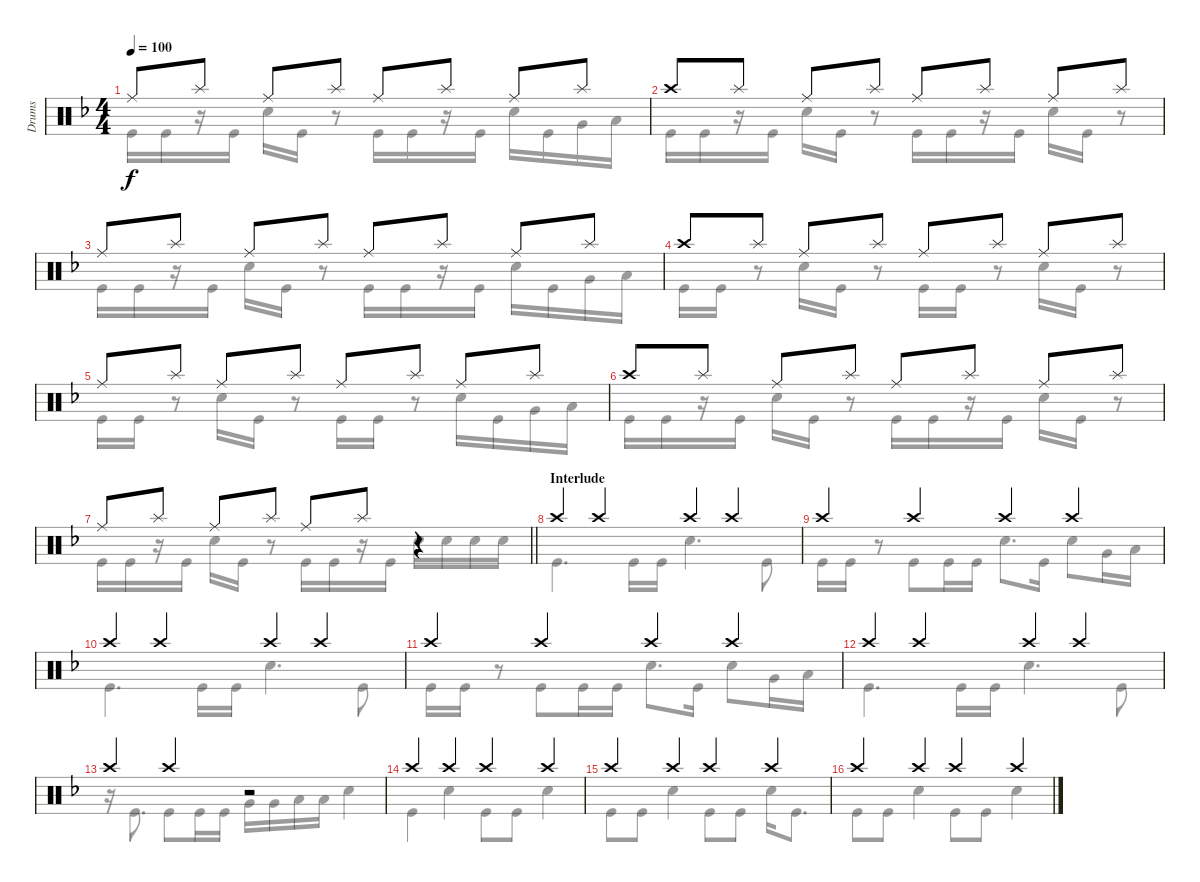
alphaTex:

\track ("Drums" "Drums") {instrument percussion}
\staff {score}
\articulation defaults
\voice
\ts (4 4)
\tempo 100
\clef neutral
\ks dminor "Ride (middle)".8{dy f} "Splash (hit)".8 "Ride (middle)".8 "Splash (hit)".8 "Ride (middle)".8 "Splash (hit)".8 "Ride (middle)".8 "Splash (hit)".8
|
"Crash high (hit)".8 "Splash (hit)".8 "Ride (middle)".8 "Splash (hit)".8 "Ride (middle)".8 "Splash (hit)".8 "Ride (middle)".8 "Splash (hit)".8 |
"Ride (middle)".8 "Splash (hit)".8 "Ride (middle)".8 "Splash (hit)".8 "Ride (middle)".8 "Splash (hit)".8 "Ride (middle)".8 "Splash (hit)".8 |
"Crash high (hit)".8 "Splash (hit)".8 "Ride (middle)".8 "Splash (hit)".8 "Ride (middle)".8 "Splash (hit)".8 "Ride (middle)".8 "Splash (hit)".8 |
"Ride (middle)".8 "Splash (hit)".8 "Ride (middle)".8 "Splash (hit)".8 "Ride (middle)".8 "Splash (hit)".8 "Ride (middle)".8 "Splash (hit)".8 |
"Crash high (hit)".8 "Splash (hit)".8 "Ride (middle)".8 "Splash (hit)".8 "Ride (middle)".8 "Splash (hit)".8 "Ride (middle)".8 "Splash (hit)".8 |
\barLineRight lightlight "Ride (middle)".8 "Splash (hit)".8 "Ride (middle)".8 "Splash (hit)".8 "Ride (middle)".8 "Splash (hit)".8
r.4 |
\section ("" "Interlude")
"Crash high (hit)".4 "Crash high (hit)".4 "Crash high (hit)".4 "Crash high (hit)".4 |
"Crash high (hit)".4 "Crash high (hit)".4 "Crash high (hit)".4 "Crash high (hit)".4 |
"Crash high (hit)".4 "Crash high (hit)".4 "Crash high (hit)".4 "Crash high (hit)".4 |
"Crash high (hit)".4 "Crash high (hit)".4 "Crash high (hit)".4 "Crash high (hit)".4 |
"Crash high (hit)".4 "Crash high (hit)".4 "Crash high (hit)".4 "Crash high (hit)".4 |
"Crash high (hit)".4 "Crash high (hit)".4 r.2 |
"Crash high (hit)".4 "Crash high (hit)".4 "Crash high (hit)".4 "Crash high (hit)".4 |
"Crash high (hit)".4 "Crash high (hit)".4 "Crash high (hit)".4 "Crash high (hit)".4 |
"Crash high (hit)".4 "Crash high (hit)".4 "Crash high (hit)".4 "Crash high (hit)".4
\voice
\clef neutral
\ottava regular
\simile none
\ks dminor "Kick (hit)".16{dy f} "Kick (hit)".16
r.16 "Kick (hit)".16 "Snare (hit) 2".16 "Kick (hit)".16 r.8 "Kick (hit)".16 "Kick (hit)".16 r.16 "Kick (hit)".16 "Snare (hit) 2".16 "Kick (hit)".16 "Very Low Tom (hit)".16 "Low Floor Tom (hit)".16 |
"Kick (hit)".16 "Kick (hit)".16 r.16 "Kick (hit)".16 "Snare (hit) 2".16 "Kick (hit)".16 r.8 "Kick (hit)".16 "Kick (hit)".16 r.16 "Kick (hit)".16 "Snare (hit) 2".16 "Kick (hit)".16 r.8 |
"Kick (hit)".16 "Kick (hit)".16 r.16 "Kick (hit)".16 "Snare (hit) 2".16 "Kick (hit)".16 r.8 "Kick (hit)".16 "Kick (hit)".16 r.16 "Kick (hit)".16 "Snare (hit) 2".16 "Kick (hit)".16 "Very Low Tom (hit)".16 "Low Floor Tom (hit)".16 |
"Kick (hit)".16 "Kick (hit)".16 r.8 "Snare (hit) 2".16 "Kick (hit)".16 r.8 "Kick (hit)".16 "Kick (hit)".16 r.8 "Snare (hit) 2".16 "Kick (hit)".16 r.8 |
"Kick (hit)".16 "Kick (hit)".16 r.8 "Snare (hit) 2".16 "Kick (hit)".16 r.8 "Kick (hit)".16 "Kick (hit)".16 r.8 "Snare (hit) 2".16 "Kick (hit)".16 "Very Low Tom (hit)".16 "Low Floor Tom (hit)".16 |
"Kick (hit)".16 "Kick (hit)".16 r.16 "Kick (hit)".16 "Snare (hit) 2".16 "Kick (hit)".16 r.8 "Kick (hit)".16 "Kick (hit)".16 r.16 "Kick (hit)".16 "Snare (hit) 2".16 "Kick (hit)".16 r.8 |
\barLineRight lightlight "Kick (hit)".16 "Kick (hit)".16
r.16 "Kick (hit)".16 "Snare (hit) 2".16 "Kick (hit)".16 r.8 "Kick (hit)".16 "Kick (hit)".16 r.16 "Kick (hit)".16 "Snare (hit) 2".16 "Snare (hit) 2".16 "Snare (hit) 2".16 "Snare (hit) 2".16 |
"Kick (hit)".4{d} "Kick (hit)".16 "Kick (hit)".16 "Snare (hit) 2".4{d} "Kick (hit)".8 |
"Kick (hit)".16 "Kick (hit)".16 r.8 "Kick (hit)".8 "Kick (hit)".16 "Kick (hit)".16 "Snare (hit) 2".8{d} "Kick (hit)".16 "Snare (hit) 2".8 "Very Low Tom (hit)".16 "Low Floor Tom (hit)".16 |
"Kick (hit)".4{d} "Kick (hit)".16 "Kick (hit)".16 "Snare (hit) 2".4{d} "Kick (hit)".8 |
"Kick (hit)".16 "Kick (hit)".16 r.8 "Kick (hit)".8 "Kick (hit)".16 "Kick (hit)".16 "Snare (hit) 2".8{d} "Kick (hit)".16 "Snare (hit) 2".8 "Very Low Tom (hit)".16 "Low Floor Tom (hit)".16 |
"Kick (hit)".4{d} "Kick (hit)".16 "Kick (hit)".16 "Snare (hit) 2".4{d} "Kick (hit)".8 |
r.16 "Kick (hit)".8{d} "Kick (hit)".8 "Kick (hit)".16 "Kick (hit)".16 "Very Low Tom (hit)".16 "Very Low Tom (hit)".16 "Low Floor Tom (hit)".16 "Low Floor Tom (hit)".16 "Snare (hit) 2".4 |
"Kick (hit)".4 "Snare (hit) 2".4 "Kick (hit)".8 "Kick (hit)".8 "Snare (hit) 2".4 |
"Kick (hit)".8 "Kick (hit)".8 "Snare (hit) 2".4 "Kick (hit)".8 "Kick (hit)".8 "Snare (hit) 2".16 "Kick (hit)".8{d} |
"Kick (hit)".8 "Kick (hit)".8 "Snare (hit) 2".4 "Kick (hit)".8 "Kick (hit)".8 "Snare (hit) 2".4
